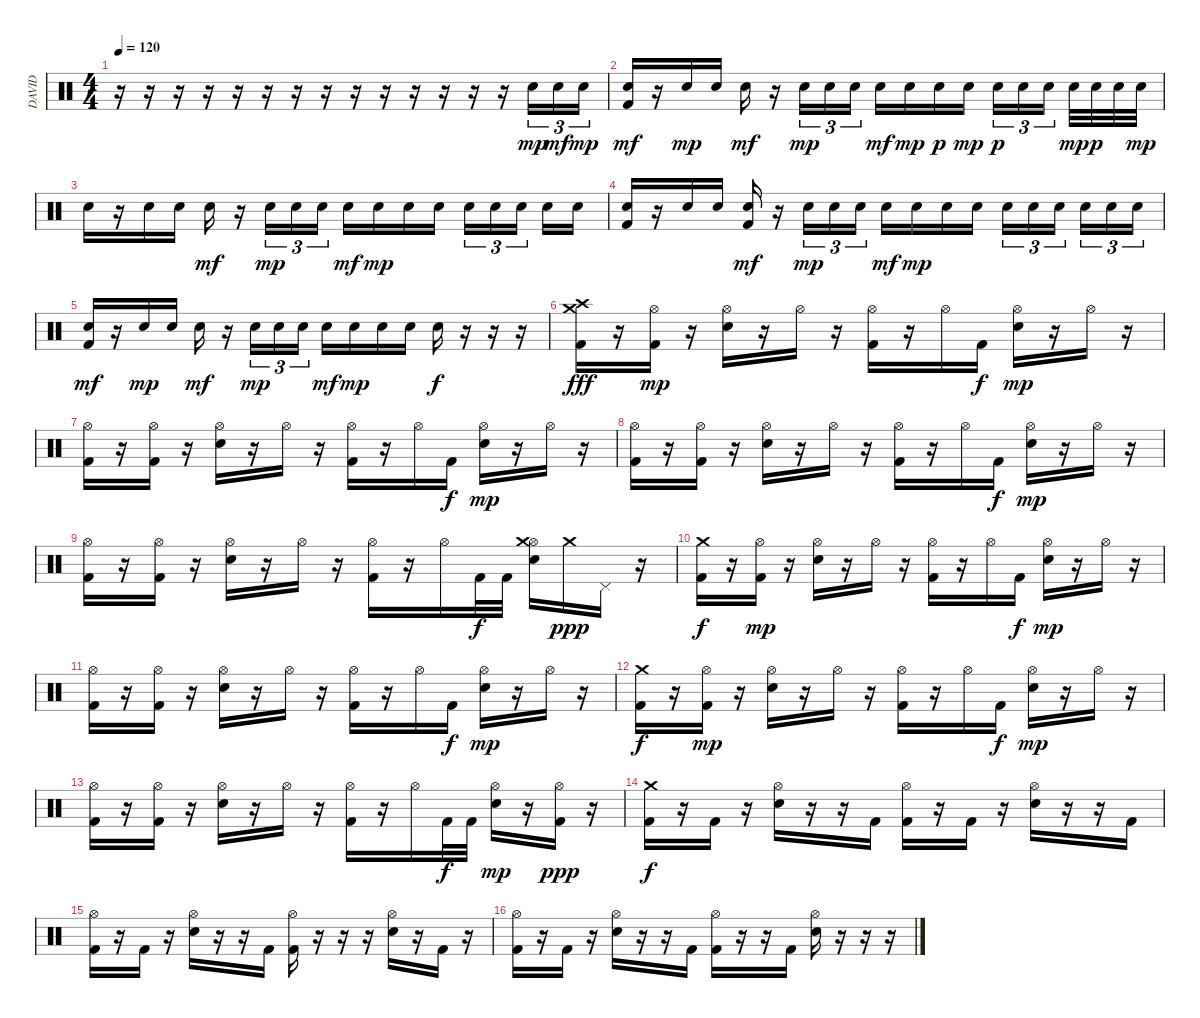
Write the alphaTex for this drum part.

\track ("DAVID" "DAVID") {instrument percussion}
\staff {score}
\articulation defaults
\ts (4 4)
\tempo 120
\clef neutral
\ks c
r.16{dy mp volume 0} r.16{volume 7} r.16 r.16 r.16 r.16 r.16 r.16 r.16 r.16 r.16 r.16 r.16 r.16 "Snare (hit) 2".16{tu (3 2)} "Snare (hit) 2".16{tu (3 2) dy mf} "Snare (hit) 2".16{tu (3 2) dy mp} |
("Snare (hit) 2" "Kick (hit) 2").16{dy mf} r.16 "Snare (hit) 2".16{dy mp} "Snare (hit) 2".16 "Snare (hit) 2".16{dy mf} r.16 "Snare (hit) 2".16{tu (3 2) dy mp} "Snare (hit) 2".16{tu (3 2)} "Snare (hit) 2".16{tu (3 2)} "Snare (hit) 2".16{dy mf} "Snare (hit) 2".16{dy mp} "Snare (hit) 2".16{dy p} "Snare (hit) 2".16{dy mp} "Snare (hit) 2".16{tu (3 2) dy p} "Snare (hit) 2".16{tu (3 2)} "Snare (hit) 2".16{tu (3 2)} "Snare (hit) 2".32{dy mp} "Snare (hit) 2".32{dy p} "Snare (hit) 2".32 "Snare (hit) 2".32{dy mp} |
"Snare (hit) 2".16 r.16 "Snare (hit) 2".16 "Snare (hit) 2".16 "Snare (hit) 2".16{dy mf} r.16 "Snare (hit) 2".16{tu (3 2) dy mp} "Snare (hit) 2".16{tu (3 2)} "Snare (hit) 2".16{tu (3 2)} "Snare (hit) 2".16{dy mf} "Snare (hit) 2".16{dy mp} "Snare (hit) 2".16 "Snare (hit) 2".16 "Snare (hit) 2".16{tu (3 2)} "Snare (hit) 2".16{tu (3 2)} "Snare (hit) 2".16{tu (3 2)} "Snare (hit) 2".16 "Snare (hit) 2".16 |
("Snare (hit) 2" "Kick (hit) 2").16{volume 15} r.16 "Snare (hit) 2".16 "Snare (hit) 2".16 ("Snare (hit) 2" "Kick (hit) 2").16{dy mf} r.16 "Snare (hit) 2".16{tu (3 2) dy mp} "Snare (hit) 2".16{tu (3 2)} "Snare (hit) 2".16{tu (3 2)} "Snare (hit) 2".16{dy mf} "Snare (hit) 2".16{dy mp} "Snare (hit) 2".16 "Snare (hit) 2".16 "Snare (hit) 2".16{tu (3 2)} "Snare (hit) 2".16{tu (3 2)} "Snare (hit) 2".16{tu (3 2)} "Snare (hit) 2".16{tu (3 2)} "Snare (hit) 2".16{tu (3 2)} "Snare (hit) 2".16{tu (3 2)} |
("Snare (hit) 2" "Kick (hit) 2").16{dy mf} r.16 "Snare (hit) 2".16{dy mp} "Snare (hit) 2".16 "Snare (hit) 2".16{dy mf} r.16 "Snare (hit) 2".16{tu (3 2) dy mp} "Snare (hit) 2".16{tu (3 2)} "Snare (hit) 2".16{tu (3 2)} "Snare (hit) 2".16{dy mf} "Snare (hit) 2".16{dy mp} "Snare (hit) 2".16 "Snare (hit) 2".16 "Snare (hit) 2".16{dy f} r.16 r.16 r.16 |
("Crash medium (hit)" "Crash high (hit)" "Kick (hit) 2").16{dy fff} r.16 ("Hi-Hat (open)" "Kick (hit) 2").16{dy mp} r.16 ("Hi-Hat (open)" "Snare (hit) 2").16 r.16 "Hi-Hat (open)".16 r.16 ("Hi-Hat (open)" "Kick (hit) 2").16 r.16 "Hi-Hat (open)".16 "Kick (hit) 2".16{dy f} ("Hi-Hat (open)" "Snare (hit) 2").16{dy mp} r.16 "Hi-Hat (open)".16 r.16 |
("Hi-Hat (open)" "Kick (hit) 2").16 r.16 ("Hi-Hat (open)" "Kick (hit) 2").16 r.16 ("Hi-Hat (open)" "Snare (hit) 2").16 r.16 "Hi-Hat (open)".16 r.16 ("Hi-Hat (open)" "Kick (hit) 2").16 r.16 "Hi-Hat (open)".16 "Kick (hit) 2".16{dy f} ("Hi-Hat (open)" "Snare (hit) 2").16{dy mp} r.16 "Hi-Hat (open)".16 r.16 |
("Hi-Hat (open)" "Kick (hit) 2").16 r.16 ("Hi-Hat (open)" "Kick (hit) 2").16 r.16 ("Hi-Hat (open)" "Snare (hit) 2").16 r.16 "Hi-Hat (open)".16 r.16 ("Hi-Hat (open)" "Kick (hit) 2").16 r.16 "Hi-Hat (open)".16 "Kick (hit) 2".16{dy f} ("Hi-Hat (open)" "Snare (hit) 2").16{dy mp} r.16 "Hi-Hat (open)".16 r.16 |
("Hi-Hat (open)" "Kick (hit) 2").16 r.16 ("Hi-Hat (open)" "Kick (hit) 2").16 r.16 ("Hi-Hat (open)" "Snare (hit) 2").16 r.16 "Hi-Hat (open)".16 r.16 ("Hi-Hat (open)" "Kick (hit) 2").16 r.16 "Hi-Hat (open)".16 "Kick (hit) 2".32{dy f} "Kick (hit) 2".32 ("Hi-Hat (open)" "Crash medium (hit)" "Snare (hit) 2").16 "Crash medium (hit)".16{dy ppp} "Pedal Hi-Hat (hit)".16 r.16 |
("Crash medium (hit)" "Kick (hit) 2").16{dy f} r.16 ("Hi-Hat (open)" "Kick (hit) 2").16{dy mp} r.16 ("Hi-Hat (open)" "Snare (hit) 2").16 r.16 "Hi-Hat (open)".16 r.16 ("Hi-Hat (open)" "Kick (hit) 2").16 r.16 "Hi-Hat (open)".16 "Kick (hit) 2".16{dy f} ("Hi-Hat (open)" "Snare (hit) 2").16{dy mp} r.16 "Hi-Hat (open)".16 r.16 |
("Hi-Hat (open)" "Kick (hit) 2").16 r.16 ("Hi-Hat (open)" "Kick (hit) 2").16 r.16 ("Hi-Hat (open)" "Snare (hit) 2").16 r.16 "Hi-Hat (open)".16 r.16 ("Hi-Hat (open)" "Kick (hit) 2").16 r.16 "Hi-Hat (open)".16 "Kick (hit) 2".16{dy f} ("Hi-Hat (open)" "Snare (hit) 2").16{dy mp} r.16 "Hi-Hat (open)".16 r.16 |
("Crash medium (hit)" "Kick (hit) 2").16{dy f} r.16 ("Hi-Hat (open)" "Kick (hit) 2").16{dy mp} r.16 ("Hi-Hat (open)" "Snare (hit) 2").16 r.16 "Hi-Hat (open)".16 r.16 ("Hi-Hat (open)" "Kick (hit) 2").16 r.16 "Hi-Hat (open)".16 "Kick (hit) 2".16{dy f} ("Hi-Hat (open)" "Snare (hit) 2").16{dy mp} r.16 "Hi-Hat (open)".16 r.16 |
("Hi-Hat (open)" "Kick (hit) 2").16 r.16 ("Hi-Hat (open)" "Kick (hit) 2").16 r.16 ("Hi-Hat (open)" "Snare (hit) 2").16 r.16 "Hi-Hat (open)".16 r.16 ("Hi-Hat (open)" "Kick (hit) 2").16 r.16 "Hi-Hat (open)".16 "Kick (hit) 2".32{dy f} "Kick (hit) 2".32 ("Hi-Hat (open)" "Snare (hit) 2").16{dy mp} r.16 ("Hi-Hat (open)" "Kick (hit) 2").16{dy ppp} r.16 |
("Crash medium (hit)" "Kick (hit) 2").16{dy f} r.16 "Kick (hit) 2".16 r.16 ("Hi-Hat (open)" "Snare (hit) 2").16 r.16 r.16 "Kick (hit) 2".16 ("Hi-Hat (open)" "Kick (hit) 2").16 r.16 "Kick (hit) 2".16 r.16 ("Hi-Hat (open)" "Snare (hit) 2").16 r.16 r.16 "Kick (hit) 2".16 |
("Hi-Hat (open)" "Kick (hit) 2").16 r.16 "Kick (hit) 2".16 r.16 ("Hi-Hat (open)" "Snare (hit) 2").16 r.16 r.16 "Kick (hit) 2".16 ("Hi-Hat (open)" "Kick (hit) 2").16 r.16 r.16 r.16 ("Hi-Hat (open)" "Snare (hit) 2").16 r.16 "Kick (hit) 2".16 r.16 |
("Hi-Hat (open)" "Kick (hit) 2").16 r.16 "Kick (hit) 2".16 r.16 ("Hi-Hat (open)" "Snare (hit) 2").16 r.16 r.16 "Kick (hit) 2".16 ("Hi-Hat (open)" "Kick (hit) 2").16 r.16 r.16 "Kick (hit) 2".16 ("Hi-Hat (open)" "Snare (hit) 2").16 r.16 r.16 r.16
